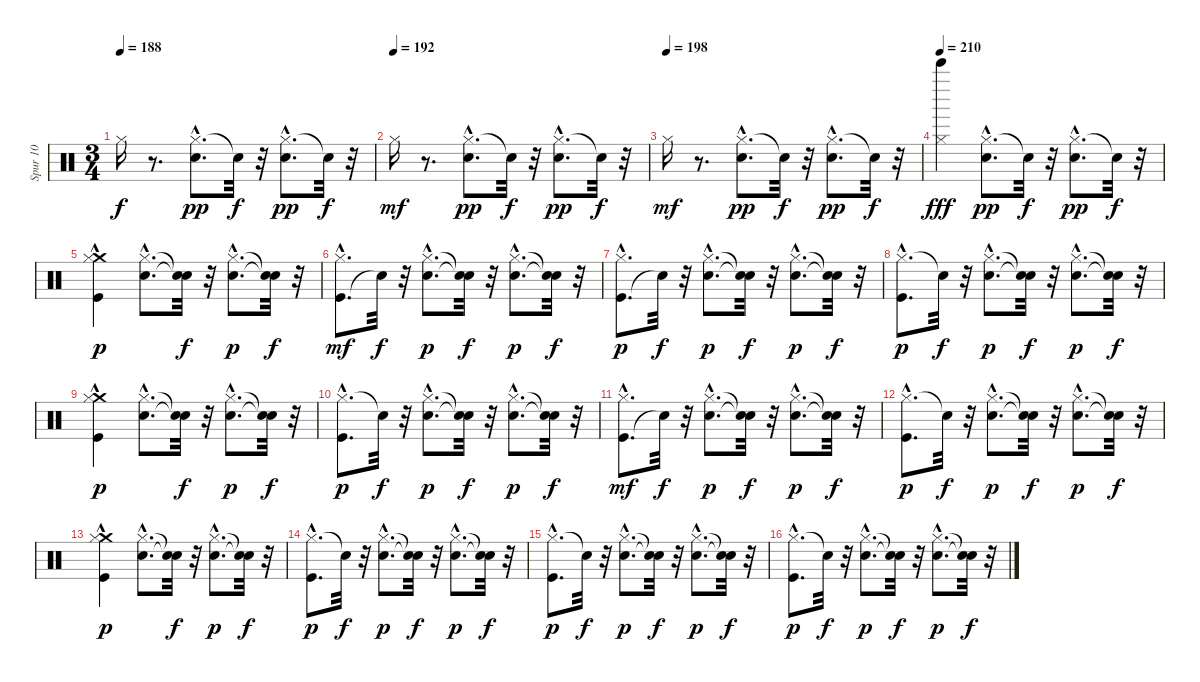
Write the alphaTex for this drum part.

\track ("Spur 10" "Spur 10") {instrument percussion}
\staff {score}
\articulation defaults
\ts (3 4)
\tempo 188
\clef neutral
\ks c "Hi-Hat (closed)".16{dy f}
r.8{d} ("Hi-Hat (closed)"{hac} "Snare (hit) 2").8{d dy pp} "Snare (hit)"{t}.32{dy f} r.32 ("Hi-Hat (closed)"{hac} "Snare (hit) 2").8{d dy pp} "Snare (hit)"{t}.32{dy f} r.32 |
\tempo (192)
"Hi-Hat (closed)".16{dy mf} r.8{d} ("Hi-Hat (closed)"{hac} "Snare (hit) 2").8{d dy pp} "Snare (hit)"{t}.32{dy f} r.32 ("Hi-Hat (closed)"{hac} "Snare (hit) 2").8{d dy pp} "Snare (hit)"{t}.32{dy f} r.32 |
\tempo (198)
"Hi-Hat (closed)".16{dy mf} r.8{d} ("Hi-Hat (closed)"{hac} "Snare (hit) 2").8{d dy pp} "Snare (hit)"{t}.32{dy f} r.32 ("Hi-Hat (closed)"{hac} "Snare (hit) 2").8{d dy pp} "Snare (hit)"{t}.32{dy f} r.32 |
\tempo 210
("Hi-Hat (closed)" "Bell Tree (hit)").4{dy fff} ("Hi-Hat (closed)"{hac} "Snare (hit) 2").8{d dy pp} "Snare (hit)"{t}.32{dy f} r.32 ("Hi-Hat (closed)"{hac} "Snare (hit) 2").8{d dy pp} "Snare (hit)"{t}.32{dy f} r.32 |
("Crash medium (hit)" "Hi-Hat (closed)" "Kick (hit)"{hac}).4{dy p} ("Snare (hit) 2"{hac} "Hi-Hat (closed)"{hac}).8{d} ("Snare (hit)"{t} "Snare (hit)"{t}).32{dy f} r.32 ("Snare (hit) 2"{hac} "Hi-Hat (closed)"{hac}).8{d dy p} ("Snare (hit)"{t} "Snare (hit)"{t}).32{dy f} r.32 |
("Kick (hit)"{hac} "Hi-Hat (closed)").8{d dy mf} "Snare (hit)"{t}.32{dy f} r.32 ("Snare (hit) 2"{hac} "Hi-Hat (closed)"{hac}).8{d dy p} ("Snare (hit)"{t} "Snare (hit)"{t}).32{dy f} r.32 ("Snare (hit) 2"{hac} "Hi-Hat (closed)"{hac}).8{d dy p} ("Snare (hit)"{t} "Snare (hit)"{t}).32{dy f} r.32 |
("Kick (hit)"{hac} "Hi-Hat (closed)").8{d dy p} "Snare (hit)"{t}.32{dy f} r.32 ("Snare (hit) 2"{hac} "Hi-Hat (closed)"{hac}).8{d dy p} ("Snare (hit)"{t} "Snare (hit)"{t}).32{dy f} r.32 ("Snare (hit) 2"{hac} "Hi-Hat (closed)"{hac}).8{d dy p} ("Snare (hit)"{t} "Snare (hit)"{t}).32{dy f} r.32 |
("Hi-Hat (closed)" "Kick (hit)"{hac}).8{d dy p} "Snare (hit)"{t}.32{dy f} r.32 ("Snare (hit) 2"{hac} "Hi-Hat (closed)"{hac}).8{d dy p} ("Snare (hit)"{t} "Snare (hit)"{t}).32{dy f} r.32 ("Snare (hit) 2"{hac} "Hi-Hat (closed)"{hac}).8{d dy p} ("Snare (hit)"{t} "Snare (hit)"{t}).32{dy f} r.32 |
("Crash medium (hit)" "Hi-Hat (closed)" "Kick (hit)"{hac}).4{dy p} ("Snare (hit) 2"{hac} "Hi-Hat (closed)"{hac}).8{d} ("Snare (hit)"{t} "Snare (hit)"{t}).32{dy f} r.32 ("Snare (hit) 2"{hac} "Hi-Hat (closed)"{hac}).8{d dy p} ("Snare (hit)"{t} "Snare (hit)"{t}).32{dy f} r.32 |
("Hi-Hat (closed)" "Kick (hit)"{hac}).8{d dy p} "Snare (hit)"{t}.32{dy f} r.32 ("Snare (hit) 2"{hac} "Hi-Hat (closed)"{hac}).8{d dy p} ("Snare (hit)"{t} "Snare (hit)"{t}).32{dy f} r.32 ("Snare (hit) 2"{hac} "Hi-Hat (closed)"{hac}).8{d dy p} ("Snare (hit)"{t} "Snare (hit)"{t}).32{dy f} r.32 |
("Kick (hit)"{hac} "Hi-Hat (closed)").8{d dy mf} "Snare (hit)"{t}.32{dy f} r.32 ("Snare (hit) 2"{hac} "Hi-Hat (closed)"{hac}).8{d dy p} ("Snare (hit)"{t} "Snare (hit)"{t}).32{dy f} r.32 ("Snare (hit) 2"{hac} "Hi-Hat (closed)"{hac}).8{d dy p} ("Snare (hit)"{t} "Snare (hit)"{t}).32{dy f} r.32 |
("Hi-Hat (closed)" "Kick (hit)"{hac}).8{d dy p} "Snare (hit)"{t}.32{dy f} r.32 ("Snare (hit) 2"{hac} "Hi-Hat (closed)"{hac}).8{d dy p} ("Snare (hit)"{t} "Snare (hit)"{t}).32{dy f} r.32 ("Snare (hit) 2"{hac} "Hi-Hat (closed)"{hac}).8{d dy p} ("Snare (hit)"{t} "Snare (hit)"{t}).32{dy f} r.32 |
("Crash medium (hit)" "Hi-Hat (closed)" "Kick (hit)"{hac}).4{dy p} ("Snare (hit) 2"{hac} "Hi-Hat (closed)"{hac}).8{d} ("Snare (hit)"{t} "Snare (hit)"{t}).32{dy f} r.32 ("Snare (hit) 2"{hac} "Hi-Hat (closed)"{hac}).8{d dy p} ("Snare (hit)"{t} "Snare (hit)"{t}).32{dy f} r.32 |
("Hi-Hat (closed)" "Kick (hit)"{hac}).8{d dy p} "Snare (hit)"{t}.32{dy f} r.32 ("Snare (hit) 2"{hac} "Hi-Hat (closed)"{hac}).8{d dy p} ("Snare (hit)"{t} "Snare (hit)"{t}).32{dy f} r.32 ("Snare (hit) 2"{hac} "Hi-Hat (closed)"{hac}).8{d dy p} ("Snare (hit)"{t} "Snare (hit)"{t}).32{dy f} r.32 |
("Hi-Hat (closed)" "Kick (hit)"{hac}).8{d dy p} "Snare (hit)"{t}.32{dy f} r.32 ("Snare (hit) 2"{hac} "Hi-Hat (closed)"{hac}).8{d dy p} ("Snare (hit)"{t} "Snare (hit)"{t}).32{dy f} r.32 ("Snare (hit) 2"{hac} "Hi-Hat (closed)"{hac}).8{d dy p} ("Snare (hit)"{t} "Snare (hit)"{t}).32{dy f} r.32 |
("Hi-Hat (closed)" "Kick (hit)"{hac}).8{d dy p} "Snare (hit)"{t}.32{dy f} r.32 ("Snare (hit) 2"{hac} "Hi-Hat (closed)"{hac}).8{d dy p} ("Snare (hit)"{t} "Snare (hit)"{t}).32{dy f} r.32 ("Snare (hit) 2"{hac} "Hi-Hat (closed)"{hac}).8{d dy p} ("Snare (hit)"{t} "Snare (hit)"{t}).32{dy f} r.32
